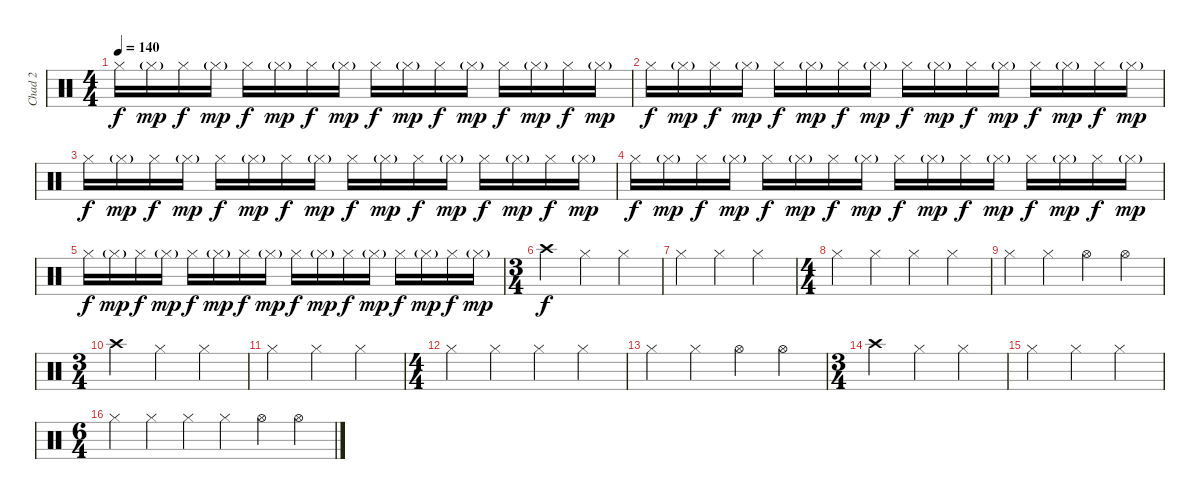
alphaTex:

\track ("Chad 2" "Chad 2") {instrument percussion}
\staff {score}
\articulation defaults
\ts (4 4)
\tempo 140
\clef neutral
\ks c "Hi-Hat (closed)".16{dy f} "Hi-Hat (closed)"{g}.16{dy mp} "Hi-Hat (closed)".16{dy f} "Hi-Hat (closed)"{g}.16{dy mp} "Hi-Hat (closed)".16{dy f} "Hi-Hat (closed)"{g}.16{dy mp} "Hi-Hat (closed)".16{dy f} "Hi-Hat (closed)"{g}.16{dy mp} "Hi-Hat (closed)".16{dy f} "Hi-Hat (closed)"{g}.16{dy mp} "Hi-Hat (closed)".16{dy f} "Hi-Hat (closed)"{g}.16{dy mp} "Hi-Hat (closed)".16{dy f} "Hi-Hat (closed)"{g}.16{dy mp} "Hi-Hat (closed)".16{dy f} "Hi-Hat (closed)"{g}.16{dy mp}
|
"Hi-Hat (closed)".16{dy f} "Hi-Hat (closed)"{g}.16{dy mp} "Hi-Hat (closed)".16{dy f} "Hi-Hat (closed)"{g}.16{dy mp} "Hi-Hat (closed)".16{dy f} "Hi-Hat (closed)"{g}.16{dy mp} "Hi-Hat (closed)".16{dy f} "Hi-Hat (closed)"{g}.16{dy mp} "Hi-Hat (closed)".16{dy f} "Hi-Hat (closed)"{g}.16{dy mp} "Hi-Hat (closed)".16{dy f} "Hi-Hat (closed)"{g}.16{dy mp} "Hi-Hat (closed)".16{dy f} "Hi-Hat (closed)"{g}.16{dy mp} "Hi-Hat (closed)".16{dy f} "Hi-Hat (closed)"{g}.16{dy mp} |
"Hi-Hat (closed)".16{dy f} "Hi-Hat (closed)"{g}.16{dy mp} "Hi-Hat (closed)".16{dy f} "Hi-Hat (closed)"{g}.16{dy mp} "Hi-Hat (closed)".16{dy f} "Hi-Hat (closed)"{g}.16{dy mp} "Hi-Hat (closed)".16{dy f} "Hi-Hat (closed)"{g}.16{dy mp} "Hi-Hat (closed)".16{dy f} "Hi-Hat (closed)"{g}.16{dy mp} "Hi-Hat (closed)".16{dy f} "Hi-Hat (closed)"{g}.16{dy mp} "Hi-Hat (closed)".16{dy f} "Hi-Hat (closed)"{g}.16{dy mp} "Hi-Hat (closed)".16{dy f} "Hi-Hat (closed)"{g}.16{dy mp} |
"Hi-Hat (closed)".16{dy f} "Hi-Hat (closed)"{g}.16{dy mp} "Hi-Hat (closed)".16{dy f} "Hi-Hat (closed)"{g}.16{dy mp} "Hi-Hat (closed)".16{dy f} "Hi-Hat (closed)"{g}.16{dy mp} "Hi-Hat (closed)".16{dy f} "Hi-Hat (closed)"{g}.16{dy mp} "Hi-Hat (closed)".16{dy f} "Hi-Hat (closed)"{g}.16{dy mp} "Hi-Hat (closed)".16{dy f} "Hi-Hat (closed)"{g}.16{dy mp} "Hi-Hat (closed)".16{dy f} "Hi-Hat (closed)"{g}.16{dy mp} "Hi-Hat (closed)".16{dy f} "Hi-Hat (closed)"{g}.16{dy mp} |
"Hi-Hat (closed)".16{dy f} "Hi-Hat (closed)"{g}.16{dy mp} "Hi-Hat (closed)".16{dy f} "Hi-Hat (closed)"{g}.16{dy mp} "Hi-Hat (closed)".16{dy f} "Hi-Hat (closed)"{g}.16{dy mp} "Hi-Hat (closed)".16{dy f} "Hi-Hat (closed)"{g}.16{dy mp} "Hi-Hat (closed)".16{dy f} "Hi-Hat (closed)"{g}.16{dy mp} "Hi-Hat (closed)".16{dy f} "Hi-Hat (closed)"{g}.16{dy mp} "Hi-Hat (closed)".16{dy f} "Hi-Hat (closed)"{g}.16{dy mp} "Hi-Hat (closed)".16{dy f} "Hi-Hat (closed)"{g}.16{dy mp} |
\ts (3 4)
"Crash high (hit)".4{dy f} "Hi-Hat (closed)".4 "Hi-Hat (closed)".4 |
"Hi-Hat (closed)".4 "Hi-Hat (closed)".4 "Hi-Hat (closed)".4 |
\ts (4 4)
"Hi-Hat (closed)".4 "Hi-Hat (closed)".4 "Hi-Hat (closed)".4 "Hi-Hat (closed)".4 |
"Hi-Hat (closed)".4 "Hi-Hat (closed)".4 "Hi-Hat (open)".4 "Hi-Hat (open)".4 |
\ts (3 4)
"Crash high (hit)".4 "Hi-Hat (closed)".4 "Hi-Hat (closed)".4 |
"Hi-Hat (closed)".4 "Hi-Hat (closed)".4 "Hi-Hat (closed)".4 |
\ts (4 4)
"Hi-Hat (closed)".4 "Hi-Hat (closed)".4 "Hi-Hat (closed)".4 "Hi-Hat (closed)".4 |
"Hi-Hat (closed)".4 "Hi-Hat (closed)".4 "Hi-Hat (open)".4 "Hi-Hat (open)".4 |
\ts (3 4)
"Crash high (hit)".4 "Hi-Hat (closed)".4 "Hi-Hat (closed)".4 |
"Hi-Hat (closed)".4 "Hi-Hat (closed)".4 "Hi-Hat (closed)".4 |
\ts (6 4)
"Hi-Hat (closed)".4 "Hi-Hat (closed)".4 "Hi-Hat (closed)".4 "Hi-Hat (closed)".4 "Hi-Hat (open)".4 "Hi-Hat (open)".4
